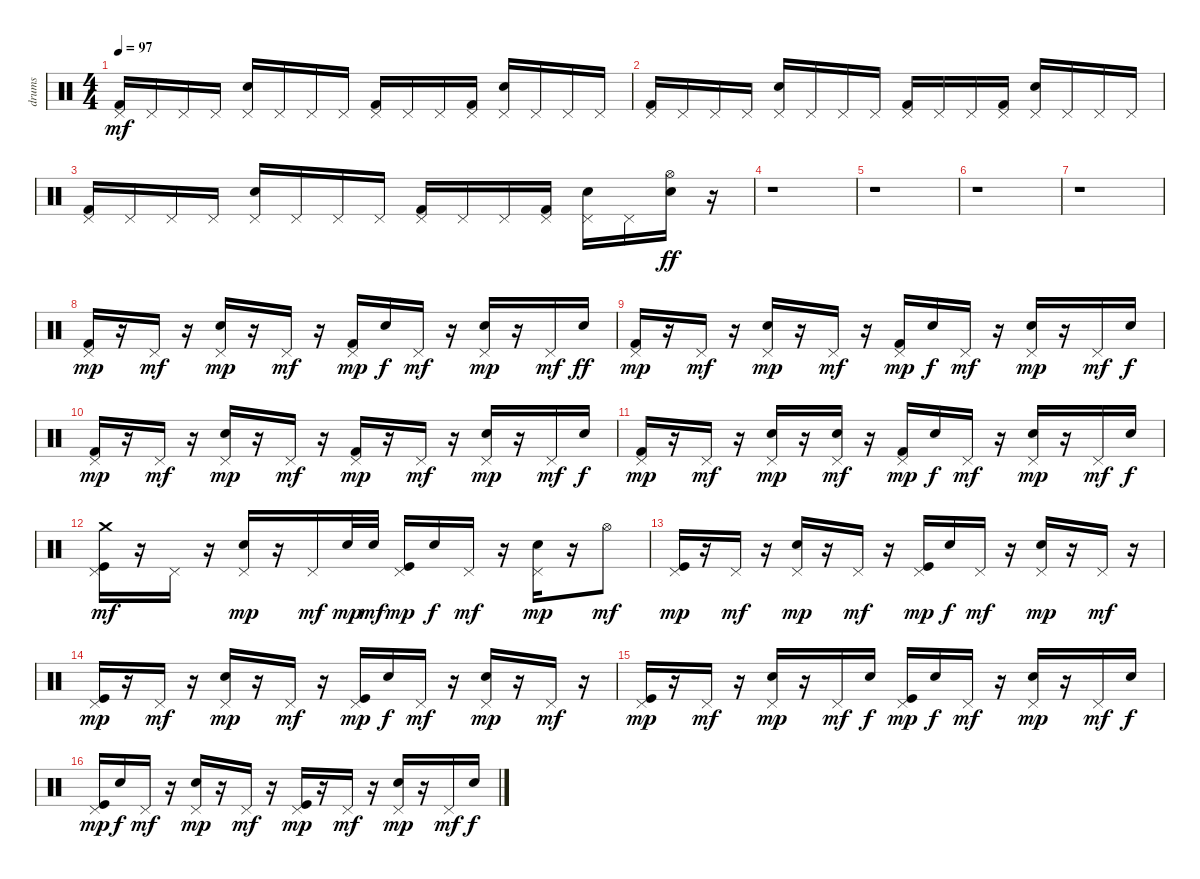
\track ("drums" "drums") {instrument percussion}
\staff {score}
\articulation defaults
\ts (4 4)
\tempo 97
\clef neutral
\ks c
("Kick (hit) 2" "Pedal Hi-Hat (hit)").16{dy mf} "Pedal Hi-Hat (hit)".16 "Pedal Hi-Hat (hit)".16 "Pedal Hi-Hat (hit)".16 ("Electric Snare (hit)" "Pedal Hi-Hat (hit)").16 "Pedal Hi-Hat (hit)".16 "Pedal Hi-Hat (hit)".16 "Pedal Hi-Hat (hit)".16 ("Kick (hit) 2" "Pedal Hi-Hat (hit)").16 "Pedal Hi-Hat (hit)".16 "Pedal Hi-Hat (hit)".16 ("Pedal Hi-Hat (hit)" "Kick (hit) 2").16 ("Electric Snare (hit)" "Pedal Hi-Hat (hit)").16 "Pedal Hi-Hat (hit)".16 "Pedal Hi-Hat (hit)".16 "Pedal Hi-Hat (hit)".16 |
("Kick (hit) 2" "Pedal Hi-Hat (hit)").16 "Pedal Hi-Hat (hit)".16 "Pedal Hi-Hat (hit)".16 "Pedal Hi-Hat (hit)".16 ("Electric Snare (hit)" "Pedal Hi-Hat (hit)").16 "Pedal Hi-Hat (hit)".16 "Pedal Hi-Hat (hit)".16 "Pedal Hi-Hat (hit)".16 ("Kick (hit) 2" "Pedal Hi-Hat (hit)").16 "Pedal Hi-Hat (hit)".16 "Pedal Hi-Hat (hit)".16 ("Kick (hit) 2" "Pedal Hi-Hat (hit)").16 ("Electric Snare (hit)" "Pedal Hi-Hat (hit)").16 "Pedal Hi-Hat (hit)".16 "Pedal Hi-Hat (hit)".16 "Pedal Hi-Hat (hit)".16 |
("Pedal Hi-Hat (hit)" "Kick (hit) 2").16 "Pedal Hi-Hat (hit)".16 "Pedal Hi-Hat (hit)".16 "Pedal Hi-Hat (hit)".16 ("Electric Snare (hit)" "Pedal Hi-Hat (hit)").16 "Pedal Hi-Hat (hit)".16 "Pedal Hi-Hat (hit)".16 "Pedal Hi-Hat (hit)".16 ("Kick (hit) 2" "Pedal Hi-Hat (hit)").16 "Pedal Hi-Hat (hit)".16 "Pedal Hi-Hat (hit)".16 ("Pedal Hi-Hat (hit)" "Kick (hit) 2").16 ("Electric Snare (hit)" "Pedal Hi-Hat (hit)").16 "Pedal Hi-Hat (hit)".16 ("Hi-Hat (open)" "Electric Snare (hit)").16{dy ff} r.16 |
r.1 |
r.1 |
r.1 |
r.1 |
("Pedal Hi-Hat (hit)" "Kick (hit) 2").16{dy mp} r.16 "Pedal Hi-Hat (hit)".16{dy mf} r.16 ("Electric Snare (hit)" "Pedal Hi-Hat (hit)").16{dy mp} r.16 "Pedal Hi-Hat (hit)".16{dy mf} r.16 ("Kick (hit) 2" "Pedal Hi-Hat (hit)").16{dy mp} "Electric Snare (hit)".16{dy f} "Pedal Hi-Hat (hit)".16{dy mf} r.16 ("Electric Snare (hit)" "Pedal Hi-Hat (hit)").16{dy mp} r.16 "Pedal Hi-Hat (hit)".16{dy mf} "Electric Snare (hit)".16{dy ff} |
("Pedal Hi-Hat (hit)" "Kick (hit) 2").16{dy mp} r.16 "Pedal Hi-Hat (hit)".16{dy mf} r.16 ("Electric Snare (hit)" "Pedal Hi-Hat (hit)").16{dy mp} r.16 "Pedal Hi-Hat (hit)".16{dy mf} r.16 ("Kick (hit) 2" "Pedal Hi-Hat (hit)").16{dy mp} "Electric Snare (hit)".16{dy f} "Pedal Hi-Hat (hit)".16{dy mf} r.16 ("Electric Snare (hit)" "Pedal Hi-Hat (hit)").16{dy mp} r.16 "Pedal Hi-Hat (hit)".16{dy mf} "Electric Snare (hit)".16{dy f} |
("Pedal Hi-Hat (hit)" "Kick (hit) 2").16{dy mp} r.16 "Pedal Hi-Hat (hit)".16{dy mf} r.16 ("Electric Snare (hit)" "Pedal Hi-Hat (hit)").16{dy mp} r.16 "Pedal Hi-Hat (hit)".16{dy mf} r.16 ("Kick (hit) 2" "Pedal Hi-Hat (hit)").16{dy mp} r.16 "Pedal Hi-Hat (hit)".16{dy mf} r.16 ("Electric Snare (hit)" "Pedal Hi-Hat (hit)").16{dy mp} r.16 "Pedal Hi-Hat (hit)".16{dy mf} "Electric Snare (hit)".16{dy f} |
("Pedal Hi-Hat (hit)" "Kick (hit) 2").16{dy mp} r.16 "Pedal Hi-Hat (hit)".16{dy mf} r.16 ("Electric Snare (hit)" "Pedal Hi-Hat (hit)").16{dy mp} r.16 ("Electric Snare (hit)" "Pedal Hi-Hat (hit)").16{dy mf} r.16 ("Kick (hit) 2" "Pedal Hi-Hat (hit)").16{dy mp} "Electric Snare (hit)".16{dy f} "Pedal Hi-Hat (hit)".16{dy mf} r.16 ("Electric Snare (hit)" "Pedal Hi-Hat (hit)").16{dy mp} r.16 "Pedal Hi-Hat (hit)".16{dy mf} "Electric Snare (hit)".16{dy f} |
("Kick (hit)" "Pedal Hi-Hat (hit)" "Crash medium (hit)").16{dy mf} r.16 "Pedal Hi-Hat (hit)".16 r.16 ("Electric Snare (hit)" "Pedal Hi-Hat (hit)").16{dy mp} r.16 "Pedal Hi-Hat (hit)".16{dy mf} "Electric Snare (hit)".32{dy mp} "Electric Snare (hit)".32{dy mf} ("Pedal Hi-Hat (hit)" "Kick (hit)").16{dy mp} "Electric Snare (hit)".16{dy f} "Pedal Hi-Hat (hit)".16{dy mf} r.16 ("Electric Snare (hit)" "Pedal Hi-Hat (hit)").16{dy mp} r.16 "Hi-Hat (open)".8{dy mf} |
("Kick (hit)" "Pedal Hi-Hat (hit)").16{dy mp} r.16 "Pedal Hi-Hat (hit)".16{dy mf} r.16 ("Electric Snare (hit)" "Pedal Hi-Hat (hit)").16{dy mp} r.16 "Pedal Hi-Hat (hit)".16{dy mf} r.16 ("Pedal Hi-Hat (hit)" "Kick (hit)").16{dy mp} "Electric Snare (hit)".16{dy f} "Pedal Hi-Hat (hit)".16{dy mf} r.16 ("Electric Snare (hit)" "Pedal Hi-Hat (hit)").16{dy mp} r.16 "Pedal Hi-Hat (hit)".16{dy mf} r.16 |
("Kick (hit)" "Pedal Hi-Hat (hit)").16{dy mp} r.16 "Pedal Hi-Hat (hit)".16{dy mf} r.16 ("Electric Snare (hit)" "Pedal Hi-Hat (hit)").16{dy mp} r.16 "Pedal Hi-Hat (hit)".16{dy mf} r.16 ("Pedal Hi-Hat (hit)" "Kick (hit)").16{dy mp} "Electric Snare (hit)".16{dy f} "Pedal Hi-Hat (hit)".16{dy mf} r.16 ("Electric Snare (hit)" "Pedal Hi-Hat (hit)").16{dy mp} r.16 "Pedal Hi-Hat (hit)".16{dy mf} r.16 |
("Kick (hit)" "Pedal Hi-Hat (hit)").16{dy mp} r.16 "Pedal Hi-Hat (hit)".16{dy mf} r.16 ("Electric Snare (hit)" "Pedal Hi-Hat (hit)").16{dy mp} r.16 "Pedal Hi-Hat (hit)".16{dy mf} "Electric Snare (hit)".16{dy f} ("Pedal Hi-Hat (hit)" "Kick (hit)").16{dy mp} "Electric Snare (hit)".16{dy f} "Pedal Hi-Hat (hit)".16{dy mf} r.16 ("Electric Snare (hit)" "Pedal Hi-Hat (hit)").16{dy mp} r.16 "Pedal Hi-Hat (hit)".16{dy mf} "Electric Snare (hit)".16{dy f} |
("Kick (hit)" "Pedal Hi-Hat (hit)").16{dy mp} "Electric Snare (hit)".16{dy f} "Pedal Hi-Hat (hit)".16{dy mf} r.16 ("Electric Snare (hit)" "Pedal Hi-Hat (hit)").16{dy mp} r.16 "Pedal Hi-Hat (hit)".16{dy mf} r.16 ("Pedal Hi-Hat (hit)" "Kick (hit)").16{dy mp} r.16 "Pedal Hi-Hat (hit)".16{dy mf} r.16 ("Electric Snare (hit)" "Pedal Hi-Hat (hit)").16{dy mp} r.16 "Pedal Hi-Hat (hit)".16{dy mf} "Electric Snare (hit)".16{dy f}
